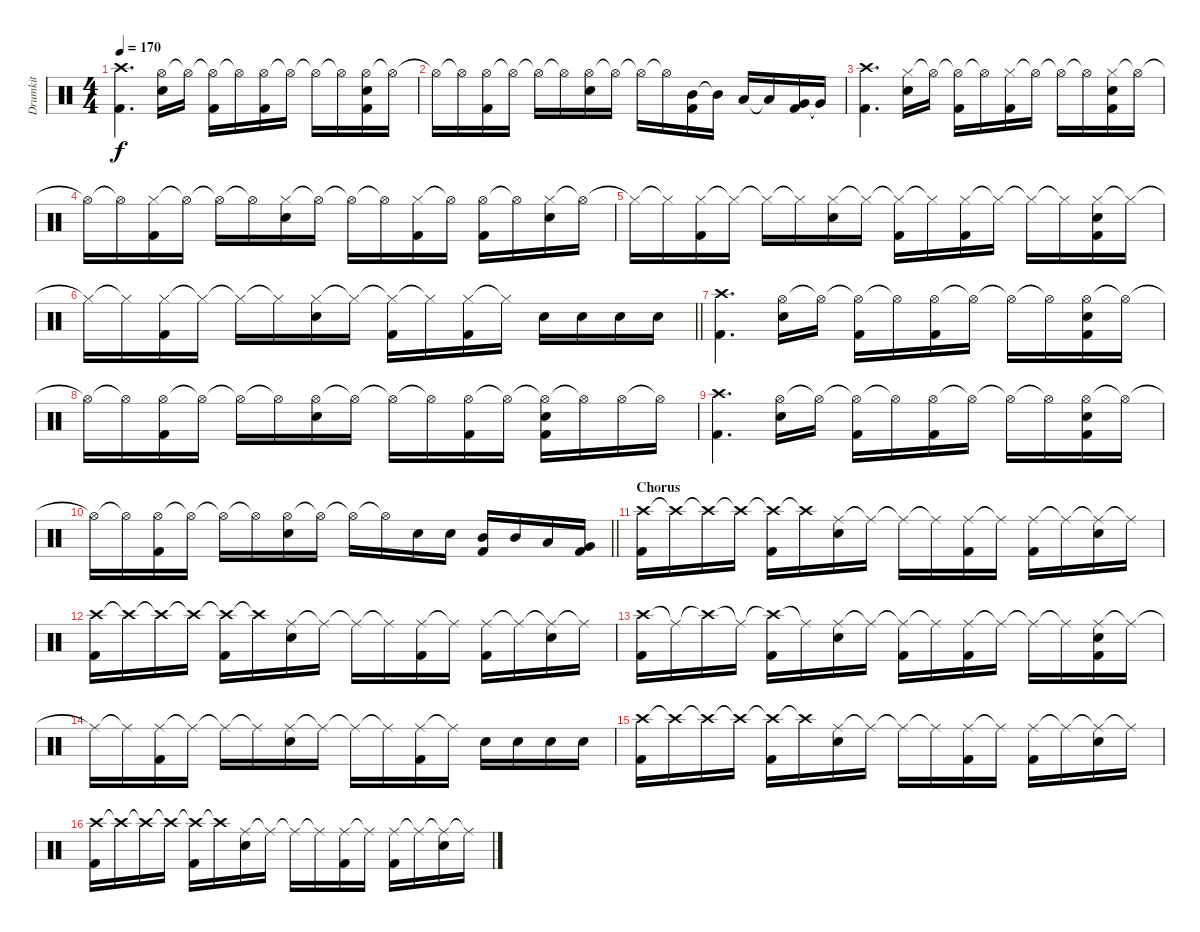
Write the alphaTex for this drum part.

\track ("Drumkit" "Drumkit") {instrument percussion}
\staff {score}
\articulation defaults
\ts (4 4)
\tempo 170
\clef neutral
\ks c
("Crash high (hit)" "Kick (hit) 2").4{d dy f} ("Hi-Hat (open)" "Snare (hit) 2").16 "Hi-Hat (open)"{t}.16 ("Hi-Hat (open)"{t} "Kick (hit) 2").16 "Hi-Hat (open)"{t}.16 ("Hi-Hat (open)" "Kick (hit) 2").16 "Hi-Hat (open)"{t}.16 "Hi-Hat (open)"{t}.16 "Hi-Hat (open)"{t}.16 ("Hi-Hat (open)" "Snare (hit) 2" "Kick (hit) 2").16 "Hi-Hat (open)"{t}.16 |
"Hi-Hat (open)"{t}.16 "Hi-Hat (open)"{t}.16 ("Hi-Hat (open)" "Kick (hit) 2").16 "Hi-Hat (open)"{t}.16 "Hi-Hat (open)"{t}.16 "Hi-Hat (open)"{t}.16 ("Hi-Hat (open)" "Snare (hit) 2").16 "Hi-Hat (open)"{t}.16 "Hi-Hat (open)"{t}.16 "Hi-Hat (open)"{t}.16 ("Mid Tom (hit)" "Kick (hit) 2").16 "Mid Tom (hit)"{t}.16 "Low Tom (hit)".16 "Low Tom (hit)"{t}.16 ("Very Low Tom (hit)" "Kick (hit) 2").16 "Very Low Tom (hit)"{t}.16 |
("Crash high (hit)" "Kick (hit) 2").4{d} ("Hi-Hat (closed)" "Snare (hit) 2").16 "Hi-Hat (open)"{t}.16 ("Hi-Hat (open)"{t} "Kick (hit) 2").16 "Hi-Hat (open)"{t}.16 ("Hi-Hat (closed)" "Kick (hit) 2").16 "Hi-Hat (open)"{t}.16 "Hi-Hat (open)"{t}.16 "Hi-Hat (open)"{t}.16 ("Hi-Hat (closed)" "Snare (hit) 2" "Kick (hit) 2").16 "Hi-Hat (open)"{t}.16 |
"Hi-Hat (open)"{t}.16 "Hi-Hat (open)"{t}.16 ("Hi-Hat (closed)" "Kick (hit) 2").16 "Hi-Hat (open)"{t}.16 "Hi-Hat (open)"{t}.16 "Hi-Hat (open)"{t}.16 ("Hi-Hat (closed)" "Snare (hit) 2").16 "Hi-Hat (open)"{t}.16 "Hi-Hat (open)"{t}.16 "Hi-Hat (open)"{t}.16 ("Hi-Hat (closed)" "Kick (hit) 2").16 "Hi-Hat (open)"{t}.16 ("Hi-Hat (open)" "Kick (hit) 2").16 "Hi-Hat (open)"{t}.16 ("Hi-Hat (closed)" "Snare (hit) 2").16 "Hi-Hat (open)"{t}.16 |
"Hi-Hat (closed)"{t}.16 "Hi-Hat (closed)"{t}.16 ("Hi-Hat (closed)" "Kick (hit) 2").16 "Hi-Hat (closed)"{t}.16 "Hi-Hat (closed)"{t}.16 "Hi-Hat (closed)"{t}.16 ("Hi-Hat (closed)" "Snare (hit) 2").16 "Hi-Hat (closed)"{t}.16 ("Hi-Hat (closed)"{t} "Kick (hit) 2").16 "Hi-Hat (closed)"{t}.16 ("Hi-Hat (closed)" "Kick (hit) 2").16 "Hi-Hat (closed)"{t}.16 "Hi-Hat (closed)"{t}.16 "Hi-Hat (closed)"{t}.16 ("Hi-Hat (closed)" "Snare (hit) 2" "Kick (hit) 2").16 "Hi-Hat (closed)"{t}.16 |
\barLineRight lightlight "Hi-Hat (closed)"{t}.16 "Hi-Hat (closed)"{t}.16
("Hi-Hat (closed)" "Kick (hit) 2").16 "Hi-Hat (closed)"{t}.16 "Hi-Hat (closed)"{t}.16 "Hi-Hat (closed)"{t}.16 ("Hi-Hat (closed)" "Snare (hit) 2").16 "Hi-Hat (closed)"{t}.16 ("Hi-Hat (closed)"{t} "Kick (hit) 2").16 "Hi-Hat (closed)"{t}.16 ("Hi-Hat (closed)" "Kick (hit) 2").16 "Hi-Hat (closed)"{t}.16 "Snare (hit) 2".16 "Snare (hit) 2".16 "Snare (hit) 2".16 "Snare (hit) 2".16 |
("Crash high (hit)" "Kick (hit) 2").4{d} ("Hi-Hat (open)" "Snare (hit) 2").16 "Hi-Hat (open)"{t}.16 ("Hi-Hat (open)"{t} "Kick (hit) 2").16 "Hi-Hat (open)"{t}.16 ("Hi-Hat (open)" "Kick (hit) 2").16 "Hi-Hat (open)"{t}.16 "Hi-Hat (open)"{t}.16 "Hi-Hat (open)"{t}.16 ("Hi-Hat (open)" "Snare (hit) 2" "Kick (hit) 2").16 "Hi-Hat (open)"{t}.16 |
"Hi-Hat (open)"{t}.16 "Hi-Hat (open)"{t}.16 ("Hi-Hat (open)" "Kick (hit) 2").16 "Hi-Hat (open)"{t}.16 "Hi-Hat (open)"{t}.16 "Hi-Hat (open)"{t}.16 ("Hi-Hat (open)" "Snare (hit) 2").16 "Hi-Hat (open)"{t}.16 "Hi-Hat (open)"{t}.16 "Hi-Hat (open)"{t}.16 ("Hi-Hat (open)" "Kick (hit) 2").16 "Hi-Hat (open)"{t}.16 ("Hi-Hat (open)"{t} "Snare (hit) 2" "Kick (hit) 2").16 "Hi-Hat (open)"{t}.16 "Hi-Hat (open)".16 "Hi-Hat (open)"{t}.16 |
("Crash high (hit)" "Kick (hit) 2").4{d} ("Hi-Hat (open)" "Snare (hit) 2").16 "Hi-Hat (open)"{t}.16 ("Hi-Hat (open)"{t} "Kick (hit) 2").16 "Hi-Hat (open)"{t}.16 ("Hi-Hat (open)" "Kick (hit) 2").16 "Hi-Hat (open)"{t}.16 "Hi-Hat (open)"{t}.16 "Hi-Hat (open)"{t}.16 ("Hi-Hat (open)" "Snare (hit) 2" "Kick (hit) 2").16 "Hi-Hat (open)"{t}.16 |
\barLineRight lightlight "Hi-Hat (open)"{t}.16 "Hi-Hat (open)"{t}.16
("Hi-Hat (open)" "Kick (hit) 2").16 "Hi-Hat (open)"{t}.16 "Hi-Hat (open)"{t}.16 "Hi-Hat (open)"{t}.16 ("Hi-Hat (open)" "Snare (hit) 2").16 "Hi-Hat (open)"{t}.16 "Hi-Hat (open)"{t}.16 "Hi-Hat (open)"{t}.16 "Snare (hit) 2".16 "Snare (hit) 2".16 ("Mid Tom (hit)" "Kick (hit) 2").16 "Mid Tom (hit)".16 "Low Tom (hit)".16 ("Very Low Tom (hit)" "Kick (hit) 2").16 |
\section ("" "Chorus")
("Crash high (hit)" "Kick (hit) 2").16 "Crash high (hit)"{t}.16 "Crash high (hit)"{t}.16 "Crash high (hit)"{t}.16 ("Crash high (hit)"{t} "Kick (hit) 2").16 "Crash high (hit)"{t}.16 ("Ride (middle)" "Snare (hit) 2").16 "Ride (middle)"{t}.16 "Ride (middle)"{t}.16 "Ride (middle)"{t}.16 ("Ride (middle)" "Kick (hit) 2").16 "Ride (middle)"{t}.16 ("Ride (middle)" "Kick (hit) 2").16 "Ride (middle)"{t}.16 ("Ride (middle)"{t} "Snare (hit) 2").16 "Ride (middle)"{t}.16 |
("Crash high (hit)" "Kick (hit) 2").16 "Crash high (hit)"{t}.16 "Crash high (hit)"{t}.16 "Crash high (hit)"{t}.16 ("Crash high (hit)"{t} "Kick (hit) 2").16 "Crash high (hit)"{t}.16 ("Ride (middle)" "Snare (hit) 2").16 "Ride (middle)"{t}.16 "Ride (middle)"{t}.16 "Ride (middle)"{t}.16 ("Ride (middle)" "Kick (hit) 2").16 "Ride (middle)"{t}.16 ("Ride (middle)" "Kick (hit) 2").16 "Ride (middle)"{t}.16 ("Ride (middle)"{t} "Snare (hit) 2").16 "Ride (middle)"{t}.16 |
("Crash high (hit)" "Kick (hit) 2").16 "Ride (middle)"{t}.16 "Crash high (hit)"{t}.16 "Ride (middle)"{t}.16 ("Crash high (hit)"{t} "Kick (hit) 2").16 "Ride (middle)"{t}.16 ("Ride (middle)" "Snare (hit) 2").16 "Ride (middle)"{t}.16 ("Ride (middle)"{t} "Kick (hit) 2").16 "Ride (middle)"{t}.16 ("Ride (middle)" "Kick (hit) 2").16 "Ride (middle)"{t}.16 "Ride (middle)"{t}.16 "Ride (middle)"{t}.16 ("Ride (middle)" "Snare (hit) 2" "Kick (hit) 2").16 "Ride (middle)"{t}.16 |
"Ride (middle)"{t}.16 "Ride (middle)"{t}.16 ("Ride (middle)" "Kick (hit) 2").16 "Ride (middle)"{t}.16 "Ride (middle)"{t}.16 "Ride (middle)"{t}.16 ("Ride (middle)" "Snare (hit) 2").16 "Ride (middle)"{t}.16 "Ride (middle)"{t}.16 "Ride (middle)"{t}.16 ("Ride (middle)" "Kick (hit) 2").16 "Ride (middle)"{t}.16 "Snare (hit) 2".16 "Snare (hit) 2".16 "Snare (hit) 2".16 "Snare (hit) 2".16 |
("Crash high (hit)" "Kick (hit) 2").16 "Crash high (hit)"{t}.16 "Crash high (hit)"{t}.16 "Crash high (hit)"{t}.16 ("Crash high (hit)"{t} "Kick (hit) 2").16 "Crash high (hit)"{t}.16 ("Ride (middle)" "Snare (hit) 2").16 "Ride (middle)"{t}.16 "Ride (middle)"{t}.16 "Ride (middle)"{t}.16 ("Ride (middle)" "Kick (hit) 2").16 "Ride (middle)"{t}.16 ("Ride (middle)" "Kick (hit) 2").16 "Ride (middle)"{t}.16 ("Ride (middle)"{t} "Snare (hit) 2").16 "Ride (middle)"{t}.16 |
("Crash high (hit)" "Kick (hit) 2").16 "Crash high (hit)"{t}.16 "Crash high (hit)"{t}.16 "Crash high (hit)"{t}.16 ("Crash high (hit)"{t} "Kick (hit) 2").16 "Crash high (hit)"{t}.16 ("Ride (middle)" "Snare (hit) 2").16 "Ride (middle)"{t}.16 "Ride (middle)"{t}.16 "Ride (middle)"{t}.16 ("Ride (middle)" "Kick (hit) 2").16 "Ride (middle)"{t}.16 ("Ride (middle)" "Kick (hit) 2").16 "Ride (middle)"{t}.16 ("Ride (middle)"{t} "Snare (hit) 2").16 "Ride (middle)"{t}.16
